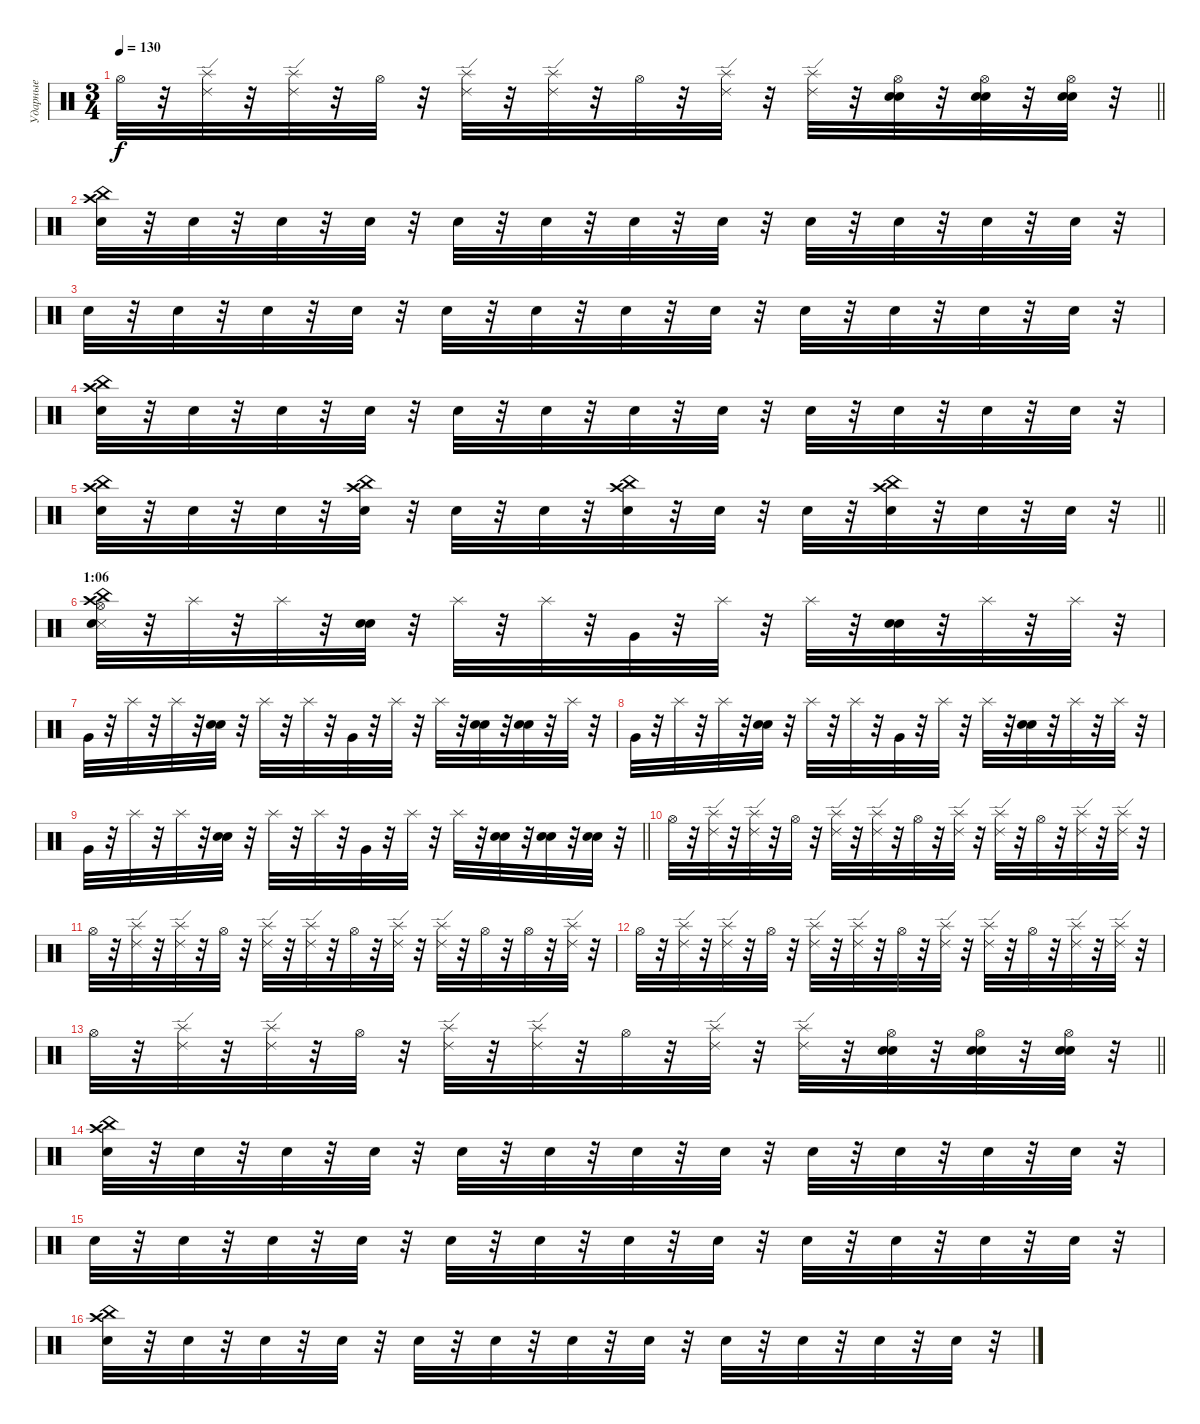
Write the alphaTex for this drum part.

\track ("Ударные" "Ударные") {instrument percussion}
\staff {score}
\articulation defaults
\ts (3 4)
\tempo 130
\clef neutral
\barLineRight lightlight
\ks c "Hi-Hat (open)".32{dy f}
r.32 ("Ride (edge) 2" "Splash (hit)").32 r.32 ("Ride (edge) 2" "Splash (hit)").32 r.32 "Hi-Hat (open)".32 r.32 ("Ride (edge) 2" "Splash (hit)").32 r.32 ("Ride (edge) 2" "Splash (hit)").32 r.32 "Hi-Hat (open)".32 r.32 ("Ride (edge) 2" "Splash (hit)").32 r.32 ("Ride (edge) 2" "Splash (hit)").32 r.32 ("Hi-Hat (open)" "Electric Snare (hit)" "Snare (hit) 2").32 r.32 ("Hi-Hat (open)" "Electric Snare (hit)" "Snare (hit) 2").32 r.32 ("Hi-Hat (open)" "Electric Snare (hit)" "Snare (hit) 2").32 r.32 |
("Electric Snare (hit)" "Crash high (hit)" "China (hit)").32{volume 10} r.32 "Electric Snare (hit)".32 r.32 "Electric Snare (hit)".32 r.32 "Electric Snare (hit)".32 r.32 "Electric Snare (hit)".32 r.32 "Electric Snare (hit)".32 r.32 "Electric Snare (hit)".32 r.32 "Electric Snare (hit)".32 r.32 "Electric Snare (hit)".32 r.32 "Electric Snare (hit)".32 r.32 "Electric Snare (hit)".32 r.32 "Electric Snare (hit)".32 r.32 |
"Electric Snare (hit)".32 r.32 "Electric Snare (hit)".32 r.32 "Electric Snare (hit)".32 r.32 "Electric Snare (hit)".32 r.32 "Electric Snare (hit)".32 r.32 "Electric Snare (hit)".32 r.32 "Electric Snare (hit)".32 r.32 "Electric Snare (hit)".32 r.32 "Electric Snare (hit)".32 r.32 "Electric Snare (hit)".32 r.32 "Electric Snare (hit)".32 r.32 "Electric Snare (hit)".32 r.32 |
("Electric Snare (hit)" "Crash high (hit)" "China (hit)").32 r.32 "Electric Snare (hit)".32 r.32 "Electric Snare (hit)".32 r.32 "Electric Snare (hit)".32 r.32 "Electric Snare (hit)".32 r.32 "Electric Snare (hit)".32 r.32 "Electric Snare (hit)".32 r.32 "Electric Snare (hit)".32 r.32 "Electric Snare (hit)".32 r.32 "Electric Snare (hit)".32 r.32 "Electric Snare (hit)".32 r.32 "Electric Snare (hit)".32 r.32 |
\barLineRight lightlight
("Electric Snare (hit)" "Crash high (hit)" "China (hit)").32 r.32 "Electric Snare (hit)".32 r.32 "Electric Snare (hit)".32 r.32 ("Electric Snare (hit)" "Crash high (hit)" "China (hit)").32 r.32 "Electric Snare (hit)".32 r.32 "Electric Snare (hit)".32 r.32 ("Electric Snare (hit)" "Crash high (hit)" "China (hit)").32 r.32 "Electric Snare (hit)".32 r.32 "Electric Snare (hit)".32 r.32 ("Electric Snare (hit)" "Crash high (hit)" "China (hit)").32 r.32 "Electric Snare (hit)".32 r.32 "Electric Snare (hit)".32 r.32 |
\section ("" "1:06")
("Crash high (hit)" "China (hit)" "Hi-Hat (open)" "Metronome (hit)" "Snare (hit) 2").32 r.32 "Splash (hit)".32 r.32 "Splash (hit)".32 r.32 ("Electric Snare (hit)" "Snare (hit) 2").32 r.32 "Splash (hit)".32 r.32 "Splash (hit)".32 r.32 "Very Low Tom (hit)".32 r.32 "Splash (hit)".32 r.32 "Splash (hit)".32 r.32 ("Electric Snare (hit)" "Snare (hit) 2").32 r.32 "Splash (hit)".32 r.32 "Splash (hit)".32 r.32 |
"Very Low Tom (hit)".32 r.32 "Splash (hit)".32 r.32 "Splash (hit)".32 r.32 ("Electric Snare (hit)" "Snare (hit) 2").32 r.32 "Splash (hit)".32 r.32 "Splash (hit)".32 r.32 "Very Low Tom (hit)".32 r.32 "Splash (hit)".32 r.32 "Splash (hit)".32 r.32 ("Electric Snare (hit)" "Snare (hit) 2").32 r.32 ("Electric Snare (hit)" "Snare (hit) 2").32 r.32 "Splash (hit)".32 r.32 |
"Very Low Tom (hit)".32 r.32 "Splash (hit)".32 r.32 "Splash (hit)".32 r.32 ("Electric Snare (hit)" "Snare (hit) 2").32 r.32 "Splash (hit)".32 r.32 "Splash (hit)".32 r.32 "Very Low Tom (hit)".32 r.32 "Splash (hit)".32 r.32 "Splash (hit)".32 r.32 ("Electric Snare (hit)" "Snare (hit) 2").32 r.32 "Splash (hit)".32 r.32 "Splash (hit)".32 r.32 |
\barLineRight lightlight "Very Low Tom (hit)".32
r.32 "Splash (hit)".32 r.32 "Splash (hit)".32 r.32 ("Electric Snare (hit)" "Snare (hit) 2").32 r.32 "Splash (hit)".32 r.32 "Splash (hit)".32 r.32 "Very Low Tom (hit)".32 r.32 "Splash (hit)".32 r.32 "Splash (hit)".32 r.32 ("Electric Snare (hit)" "Snare (hit) 2").32 r.32 ("Electric Snare (hit)" "Snare (hit) 2").32 r.32 ("Electric Snare (hit)" "Snare (hit) 2").32 r.32 |
"Hi-Hat (open)".32{volume 8} r.32 ("Ride (edge) 2" "Splash (hit)").32 r.32 ("Ride (edge) 2" "Splash (hit)").32 r.32 "Hi-Hat (open)".32 r.32 ("Ride (edge) 2" "Splash (hit)").32 r.32 ("Ride (edge) 2" "Splash (hit)").32 r.32 "Hi-Hat (open)".32 r.32 ("Ride (edge) 2" "Splash (hit)").32 r.32 ("Ride (edge) 2" "Splash (hit)").32 r.32 "Hi-Hat (open)".32 r.32 ("Ride (edge) 2" "Splash (hit)").32 r.32 ("Ride (edge) 2" "Splash (hit)").32 r.32 |
"Hi-Hat (open)".32 r.32 ("Ride (edge) 2" "Splash (hit)").32 r.32 ("Ride (edge) 2" "Splash (hit)").32 r.32 "Hi-Hat (open)".32 r.32 ("Ride (edge) 2" "Splash (hit)").32 r.32 ("Ride (edge) 2" "Splash (hit)").32 r.32 "Hi-Hat (open)".32 r.32 ("Ride (edge) 2" "Splash (hit)").32 r.32 ("Ride (edge) 2" "Splash (hit)").32 r.32 "Hi-Hat (open)".32 r.32 "Hi-Hat (open)".32 r.32 ("Ride (edge) 2" "Splash (hit)").32 r.32 |
"Hi-Hat (open)".32 r.32 ("Ride (edge) 2" "Splash (hit)").32 r.32 ("Ride (edge) 2" "Splash (hit)").32 r.32 "Hi-Hat (open)".32 r.32 ("Ride (edge) 2" "Splash (hit)").32 r.32 ("Ride (edge) 2" "Splash (hit)").32 r.32 "Hi-Hat (open)".32 r.32 ("Ride (edge) 2" "Splash (hit)").32 r.32 ("Ride (edge) 2" "Splash (hit)").32 r.32 "Hi-Hat (open)".32 r.32 ("Ride (edge) 2" "Splash (hit)").32 r.32 ("Ride (edge) 2" "Splash (hit)").32 r.32 |
\barLineRight lightlight "Hi-Hat (open)".32
r.32 ("Ride (edge) 2" "Splash (hit)").32 r.32 ("Ride (edge) 2" "Splash (hit)").32 r.32 "Hi-Hat (open)".32 r.32 ("Ride (edge) 2" "Splash (hit)").32 r.32 ("Ride (edge) 2" "Splash (hit)").32 r.32 "Hi-Hat (open)".32 r.32 ("Ride (edge) 2" "Splash (hit)").32 r.32 ("Ride (edge) 2" "Splash (hit)").32 r.32 ("Hi-Hat (open)" "Electric Snare (hit)" "Snare (hit) 2").32 r.32 ("Hi-Hat (open)" "Electric Snare (hit)" "Snare (hit) 2").32 r.32 ("Hi-Hat (open)" "Electric Snare (hit)" "Snare (hit) 2").32 r.32 |
("Electric Snare (hit)" "Crash high (hit)" "China (hit)").32{volume 10} r.32 "Electric Snare (hit)".32 r.32 "Electric Snare (hit)".32 r.32 "Electric Snare (hit)".32 r.32 "Electric Snare (hit)".32 r.32 "Electric Snare (hit)".32 r.32 "Electric Snare (hit)".32 r.32 "Electric Snare (hit)".32 r.32 "Electric Snare (hit)".32 r.32 "Electric Snare (hit)".32 r.32 "Electric Snare (hit)".32 r.32 "Electric Snare (hit)".32 r.32 |
"Electric Snare (hit)".32 r.32 "Electric Snare (hit)".32 r.32 "Electric Snare (hit)".32 r.32 "Electric Snare (hit)".32 r.32 "Electric Snare (hit)".32 r.32 "Electric Snare (hit)".32 r.32 "Electric Snare (hit)".32 r.32 "Electric Snare (hit)".32 r.32 "Electric Snare (hit)".32 r.32 "Electric Snare (hit)".32 r.32 "Electric Snare (hit)".32 r.32 "Electric Snare (hit)".32 r.32 |
("Electric Snare (hit)" "Crash high (hit)" "China (hit)").32 r.32 "Electric Snare (hit)".32 r.32 "Electric Snare (hit)".32 r.32 "Electric Snare (hit)".32 r.32 "Electric Snare (hit)".32 r.32 "Electric Snare (hit)".32 r.32 "Electric Snare (hit)".32 r.32 "Electric Snare (hit)".32 r.32 "Electric Snare (hit)".32 r.32 "Electric Snare (hit)".32 r.32 "Electric Snare (hit)".32 r.32 "Electric Snare (hit)".32 r.32
